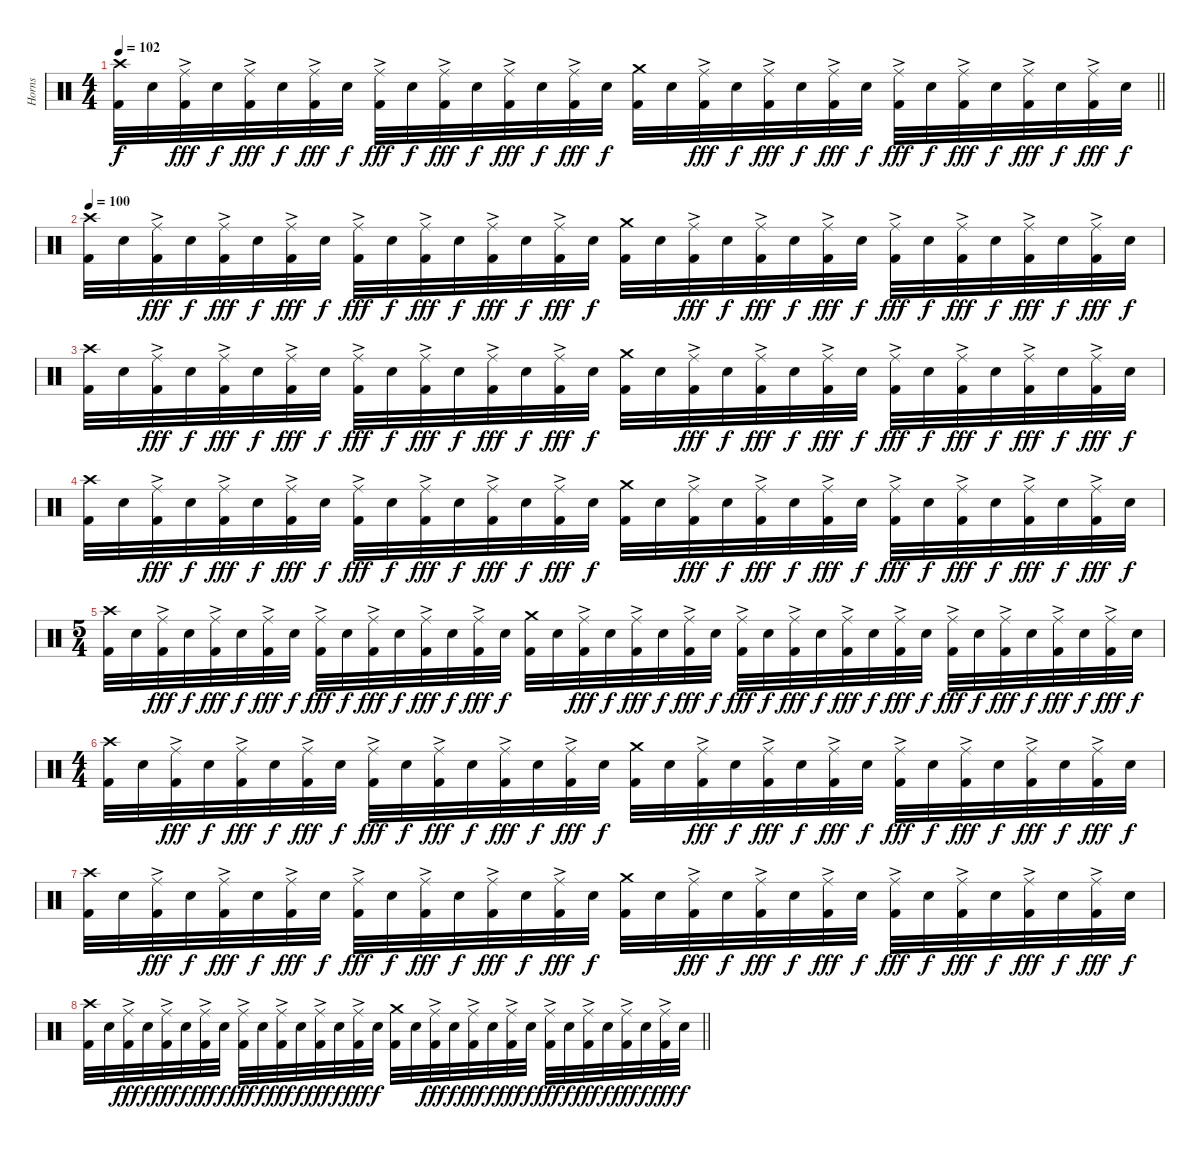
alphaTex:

\track ("Horns" "Horns") {instrument percussion}
\staff {score}
\articulation defaults
\ts (4 4)
\tempo 102
\clef neutral
\barLineRight lightlight
\ks c
("Crash high (hit)" "Kick (hit) 2").32{dy f} "Snare (hit) 2".32 ("Ride (middle)"{ac} "Kick (hit) 2").32{dy fff} "Snare (hit) 2".32{dy f} ("Ride (middle)"{ac} "Kick (hit) 2").32{dy fff} "Snare (hit) 2".32{dy f} ("Ride (middle)"{ac} "Kick (hit) 2").32{dy fff} "Snare (hit) 2".32{dy f} ("Ride (middle)"{ac} "Kick (hit) 2").32{dy fff} "Snare (hit) 2".32{dy f} ("Ride (middle)"{ac} "Kick (hit) 2").32{dy fff} "Snare (hit) 2".32{dy f} ("Ride (middle)"{ac} "Kick (hit) 2").32{dy fff} "Snare (hit) 2".32{dy f} ("Ride (middle)"{ac} "Kick (hit) 2").32{dy fff} "Snare (hit) 2".32{dy f} ("Crash medium (hit)" "Kick (hit) 2").32 "Snare (hit) 2".32 ("Ride (middle)"{ac} "Kick (hit) 2").32{dy fff} "Snare (hit) 2".32{dy f} ("Ride (middle)"{ac} "Kick (hit) 2").32{dy fff} "Snare (hit) 2".32{dy f} ("Ride (middle)"{ac} "Kick (hit) 2").32{dy fff} "Snare (hit) 2".32{dy f} ("Ride (middle)"{ac} "Kick (hit) 2").32{dy fff} "Snare (hit) 2".32{dy f} ("Ride (middle)"{ac} "Kick (hit) 2").32{dy fff} "Snare (hit) 2".32{dy f} ("Ride (middle)"{ac} "Kick (hit) 2").32{dy fff} "Snare (hit) 2".32{dy f} ("Ride (middle)"{ac} "Kick (hit) 2").32{dy fff} "Snare (hit) 2".32{dy f} |
\tempo 100
("Crash high (hit)" "Kick (hit) 2").32 "Snare (hit) 2".32 ("Ride (middle)"{ac} "Kick (hit) 2").32{dy fff} "Snare (hit) 2".32{dy f} ("Ride (middle)"{ac} "Kick (hit) 2").32{dy fff} "Snare (hit) 2".32{dy f} ("Ride (middle)"{ac} "Kick (hit) 2").32{dy fff} "Snare (hit) 2".32{dy f} ("Ride (middle)"{ac} "Kick (hit) 2").32{dy fff} "Snare (hit) 2".32{dy f} ("Ride (middle)"{ac} "Kick (hit) 2").32{dy fff} "Snare (hit) 2".32{dy f} ("Ride (middle)"{ac} "Kick (hit) 2").32{dy fff} "Snare (hit) 2".32{dy f} ("Ride (middle)"{ac} "Kick (hit) 2").32{dy fff} "Snare (hit) 2".32{dy f} ("Crash medium (hit)" "Kick (hit) 2").32 "Snare (hit) 2".32 ("Ride (middle)"{ac} "Kick (hit) 2").32{dy fff} "Snare (hit) 2".32{dy f} ("Ride (middle)"{ac} "Kick (hit) 2").32{dy fff} "Snare (hit) 2".32{dy f} ("Ride (middle)"{ac} "Kick (hit) 2").32{dy fff} "Snare (hit) 2".32{dy f} ("Ride (middle)"{ac} "Kick (hit) 2").32{dy fff} "Snare (hit) 2".32{dy f} ("Ride (middle)"{ac} "Kick (hit) 2").32{dy fff} "Snare (hit) 2".32{dy f} ("Ride (middle)"{ac} "Kick (hit) 2").32{dy fff} "Snare (hit) 2".32{dy f} ("Ride (middle)"{ac} "Kick (hit) 2").32{dy fff} "Snare (hit) 2".32{dy f} |
("Crash high (hit)" "Kick (hit) 2").32 "Snare (hit) 2".32 ("Ride (middle)"{ac} "Kick (hit) 2").32{dy fff} "Snare (hit) 2".32{dy f} ("Ride (middle)"{ac} "Kick (hit) 2").32{dy fff} "Snare (hit) 2".32{dy f} ("Ride (middle)"{ac} "Kick (hit) 2").32{dy fff} "Snare (hit) 2".32{dy f} ("Ride (middle)"{ac} "Kick (hit) 2").32{dy fff} "Snare (hit) 2".32{dy f} ("Ride (middle)"{ac} "Kick (hit) 2").32{dy fff} "Snare (hit) 2".32{dy f} ("Ride (middle)"{ac} "Kick (hit) 2").32{dy fff} "Snare (hit) 2".32{dy f} ("Ride (middle)"{ac} "Kick (hit) 2").32{dy fff} "Snare (hit) 2".32{dy f} ("Crash medium (hit)" "Kick (hit) 2").32 "Snare (hit) 2".32 ("Ride (middle)"{ac} "Kick (hit) 2").32{dy fff} "Snare (hit) 2".32{dy f} ("Ride (middle)"{ac} "Kick (hit) 2").32{dy fff} "Snare (hit) 2".32{dy f} ("Ride (middle)"{ac} "Kick (hit) 2").32{dy fff} "Snare (hit) 2".32{dy f} ("Ride (middle)"{ac} "Kick (hit) 2").32{dy fff} "Snare (hit) 2".32{dy f} ("Ride (middle)"{ac} "Kick (hit) 2").32{dy fff} "Snare (hit) 2".32{dy f} ("Ride (middle)"{ac} "Kick (hit) 2").32{dy fff} "Snare (hit) 2".32{dy f} ("Ride (middle)"{ac} "Kick (hit) 2").32{dy fff} "Snare (hit) 2".32{dy f} |
("Crash high (hit)" "Kick (hit) 2").32 "Snare (hit) 2".32 ("Ride (middle)"{ac} "Kick (hit) 2").32{dy fff} "Snare (hit) 2".32{dy f} ("Ride (middle)"{ac} "Kick (hit) 2").32{dy fff} "Snare (hit) 2".32{dy f} ("Ride (middle)"{ac} "Kick (hit) 2").32{dy fff} "Snare (hit) 2".32{dy f} ("Ride (middle)"{ac} "Kick (hit) 2").32{dy fff} "Snare (hit) 2".32{dy f} ("Ride (middle)"{ac} "Kick (hit) 2").32{dy fff} "Snare (hit) 2".32{dy f} ("Ride (middle)"{ac} "Kick (hit) 2").32{dy fff} "Snare (hit) 2".32{dy f} ("Ride (middle)"{ac} "Kick (hit) 2").32{dy fff} "Snare (hit) 2".32{dy f} ("Crash medium (hit)" "Kick (hit) 2").32 "Snare (hit) 2".32 ("Ride (middle)"{ac} "Kick (hit) 2").32{dy fff} "Snare (hit) 2".32{dy f} ("Ride (middle)"{ac} "Kick (hit) 2").32{dy fff} "Snare (hit) 2".32{dy f} ("Ride (middle)"{ac} "Kick (hit) 2").32{dy fff} "Snare (hit) 2".32{dy f} ("Ride (middle)"{ac} "Kick (hit) 2").32{dy fff} "Snare (hit) 2".32{dy f} ("Ride (middle)"{ac} "Kick (hit) 2").32{dy fff} "Snare (hit) 2".32{dy f} ("Ride (middle)"{ac} "Kick (hit) 2").32{dy fff} "Snare (hit) 2".32{dy f} ("Ride (middle)"{ac} "Kick (hit) 2").32{dy fff} "Snare (hit) 2".32{dy f} |
\ts (5 4)
("Crash high (hit)" "Kick (hit) 2").32 "Snare (hit) 2".32 ("Ride (middle)"{ac} "Kick (hit) 2").32{dy fff} "Snare (hit) 2".32{dy f} ("Ride (middle)"{ac} "Kick (hit) 2").32{dy fff} "Snare (hit) 2".32{dy f} ("Ride (middle)"{ac} "Kick (hit) 2").32{dy fff} "Snare (hit) 2".32{dy f} ("Ride (middle)"{ac} "Kick (hit) 2").32{dy fff} "Snare (hit) 2".32{dy f} ("Ride (middle)"{ac} "Kick (hit) 2").32{dy fff} "Snare (hit) 2".32{dy f} ("Ride (middle)"{ac} "Kick (hit) 2").32{dy fff} "Snare (hit) 2".32{dy f} ("Ride (middle)"{ac} "Kick (hit) 2").32{dy fff} "Snare (hit) 2".32{dy f} ("Crash medium (hit)" "Kick (hit) 2").32 "Snare (hit) 2".32 ("Ride (middle)"{ac} "Kick (hit) 2").32{dy fff} "Snare (hit) 2".32{dy f} ("Ride (middle)"{ac} "Kick (hit) 2").32{dy fff} "Snare (hit) 2".32{dy f} ("Ride (middle)"{ac} "Kick (hit) 2").32{dy fff} "Snare (hit) 2".32{dy f} ("Ride (middle)"{ac} "Kick (hit) 2").32{dy fff} "Snare (hit) 2".32{dy f} ("Ride (middle)"{ac} "Kick (hit) 2").32{dy fff} "Snare (hit) 2".32{dy f} ("Ride (middle)"{ac} "Kick (hit) 2").32{dy fff} "Snare (hit) 2".32{dy f} ("Ride (middle)"{ac} "Kick (hit) 2").32{dy fff} "Snare (hit) 2".32{dy f} ("Ride (middle)"{ac} "Kick (hit) 2").32{dy fff} "Snare (hit) 2".32{dy f} ("Ride (middle)"{ac} "Kick (hit) 2").32{dy fff} "Snare (hit) 2".32{dy f} ("Ride (middle)"{ac} "Kick (hit) 2").32{dy fff} "Snare (hit) 2".32{dy f} ("Ride (middle)"{ac} "Kick (hit) 2").32{dy fff} "Snare (hit) 2".32{dy f} |
\ts (4 4)
("Crash high (hit)" "Kick (hit) 2").32 "Snare (hit) 2".32 ("Ride (middle)"{ac} "Kick (hit) 2").32{dy fff} "Snare (hit) 2".32{dy f} ("Ride (middle)"{ac} "Kick (hit) 2").32{dy fff} "Snare (hit) 2".32{dy f} ("Ride (middle)"{ac} "Kick (hit) 2").32{dy fff} "Snare (hit) 2".32{dy f} ("Ride (middle)"{ac} "Kick (hit) 2").32{dy fff} "Snare (hit) 2".32{dy f} ("Ride (middle)"{ac} "Kick (hit) 2").32{dy fff} "Snare (hit) 2".32{dy f} ("Ride (middle)"{ac} "Kick (hit) 2").32{dy fff} "Snare (hit) 2".32{dy f} ("Ride (middle)"{ac} "Kick (hit) 2").32{dy fff} "Snare (hit) 2".32{dy f} ("Crash medium (hit)" "Kick (hit) 2").32 "Snare (hit) 2".32 ("Ride (middle)"{ac} "Kick (hit) 2").32{dy fff} "Snare (hit) 2".32{dy f} ("Ride (middle)"{ac} "Kick (hit) 2").32{dy fff} "Snare (hit) 2".32{dy f} ("Ride (middle)"{ac} "Kick (hit) 2").32{dy fff} "Snare (hit) 2".32{dy f} ("Ride (middle)"{ac} "Kick (hit) 2").32{dy fff} "Snare (hit) 2".32{dy f} ("Ride (middle)"{ac} "Kick (hit) 2").32{dy fff} "Snare (hit) 2".32{dy f} ("Ride (middle)"{ac} "Kick (hit) 2").32{dy fff} "Snare (hit) 2".32{dy f} ("Ride (middle)"{ac} "Kick (hit) 2").32{dy fff} "Snare (hit) 2".32{dy f} |
("Crash high (hit)" "Kick (hit) 2").32 "Snare (hit) 2".32 ("Ride (middle)"{ac} "Kick (hit) 2").32{dy fff} "Snare (hit) 2".32{dy f} ("Ride (middle)"{ac} "Kick (hit) 2").32{dy fff} "Snare (hit) 2".32{dy f} ("Ride (middle)"{ac} "Kick (hit) 2").32{dy fff} "Snare (hit) 2".32{dy f} ("Ride (middle)"{ac} "Kick (hit) 2").32{dy fff} "Snare (hit) 2".32{dy f} ("Ride (middle)"{ac} "Kick (hit) 2").32{dy fff} "Snare (hit) 2".32{dy f} ("Ride (middle)"{ac} "Kick (hit) 2").32{dy fff} "Snare (hit) 2".32{dy f} ("Ride (middle)"{ac} "Kick (hit) 2").32{dy fff} "Snare (hit) 2".32{dy f} ("Crash medium (hit)" "Kick (hit) 2").32 "Snare (hit) 2".32 ("Ride (middle)"{ac} "Kick (hit) 2").32{dy fff} "Snare (hit) 2".32{dy f} ("Ride (middle)"{ac} "Kick (hit) 2").32{dy fff} "Snare (hit) 2".32{dy f} ("Ride (middle)"{ac} "Kick (hit) 2").32{dy fff} "Snare (hit) 2".32{dy f} ("Ride (middle)"{ac} "Kick (hit) 2").32{dy fff} "Snare (hit) 2".32{dy f} ("Ride (middle)"{ac} "Kick (hit) 2").32{dy fff} "Snare (hit) 2".32{dy f} ("Ride (middle)"{ac} "Kick (hit) 2").32{dy fff} "Snare (hit) 2".32{dy f} ("Ride (middle)"{ac} "Kick (hit) 2").32{dy fff} "Snare (hit) 2".32{dy f} |
\barLineRight lightlight
("Crash high (hit)" "Kick (hit) 2").32 "Snare (hit) 2".32 ("Ride (middle)"{ac} "Kick (hit) 2").32{dy fff} "Snare (hit) 2".32{dy f} ("Ride (middle)"{ac} "Kick (hit) 2").32{dy fff} "Snare (hit) 2".32{dy f} ("Ride (middle)"{ac} "Kick (hit) 2").32{dy fff} "Snare (hit) 2".32{dy f} ("Ride (middle)"{ac} "Kick (hit) 2").32{dy fff} "Snare (hit) 2".32{dy f} ("Ride (middle)"{ac} "Kick (hit) 2").32{dy fff} "Snare (hit) 2".32{dy f} ("Ride (middle)"{ac} "Kick (hit) 2").32{dy fff} "Snare (hit) 2".32{dy f} ("Ride (middle)"{ac} "Kick (hit) 2").32{dy fff} "Snare (hit) 2".32{dy f} ("Crash medium (hit)" "Kick (hit) 2").32 "Snare (hit) 2".32 ("Ride (middle)"{ac} "Kick (hit) 2").32{dy fff} "Snare (hit) 2".32{dy f} ("Ride (middle)"{ac} "Kick (hit) 2").32{dy fff} "Snare (hit) 2".32{dy f} ("Ride (middle)"{ac} "Kick (hit) 2").32{dy fff} "Snare (hit) 2".32{dy f} ("Ride (middle)"{ac} "Kick (hit) 2").32{dy fff} "Snare (hit) 2".32{dy f} ("Ride (middle)"{ac} "Kick (hit) 2").32{dy fff} "Snare (hit) 2".32{dy f} ("Ride (middle)"{ac} "Kick (hit) 2").32{dy fff} "Snare (hit) 2".32{dy f} ("Ride (middle)"{ac} "Kick (hit) 2").32{dy fff} "Snare (hit) 2".32{dy f}
